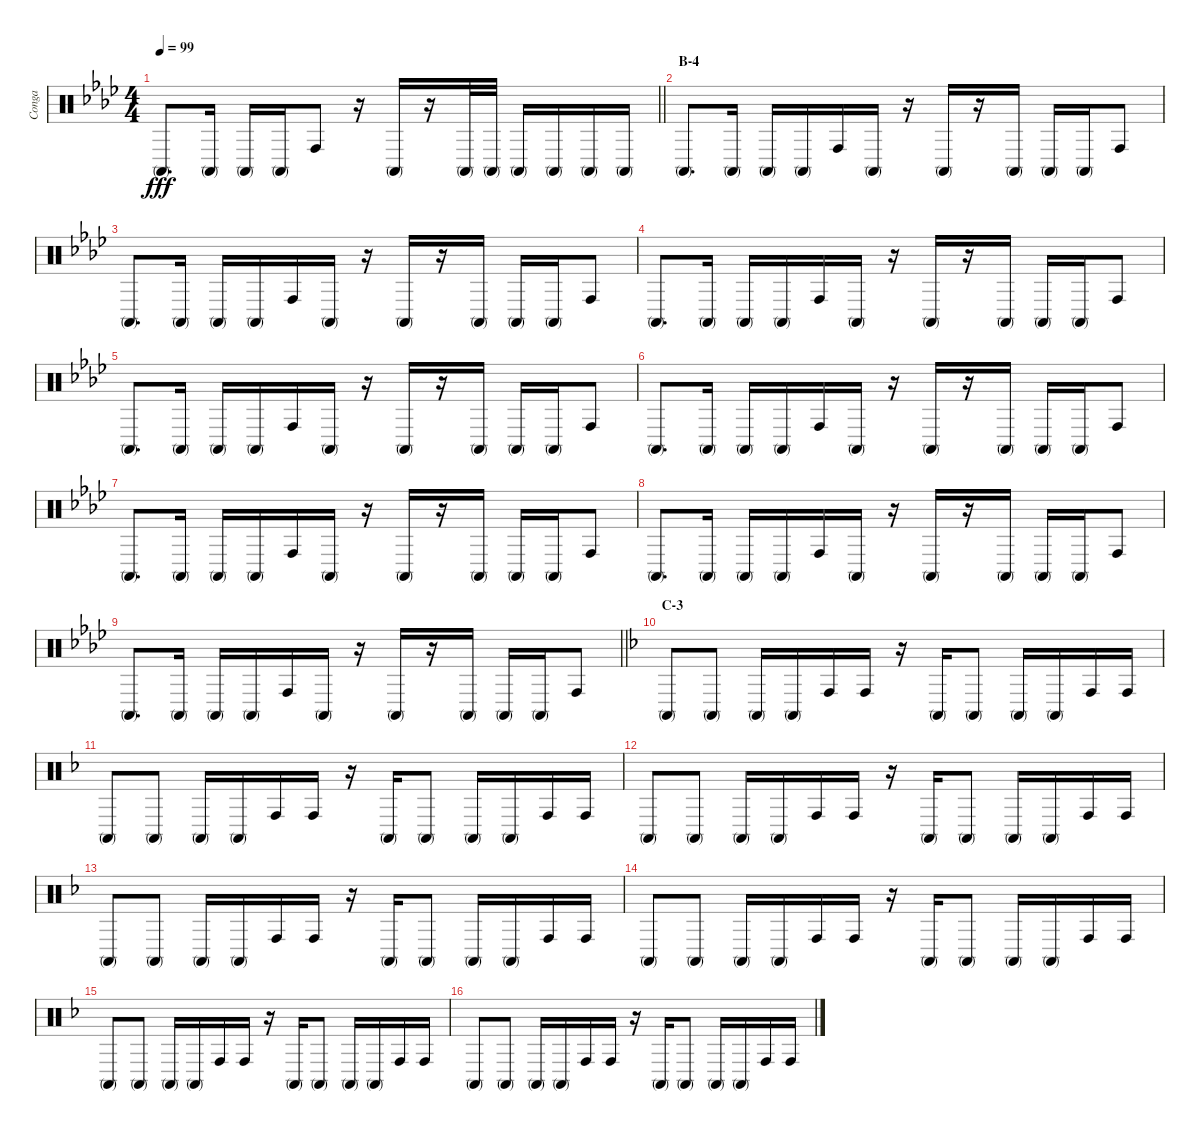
\track ("Conga" "Conga") {instrument percussion}
\staff {score}
\articulation defaults
\ts (4 4)
\tempo 99
\clef neutral
\barLineRight lightlight
\ks ab "Conga high (mute)".8{d dy fff} "Conga high (mute)".16 "Conga high (mute)".16 "Conga high (mute)".16 "Conga high (hit)".8
r.16 "Conga high (mute)".16 r.16 "Conga high (mute)".32 "Conga high (mute)".32 "Conga high (mute)".16 "Conga high (mute)".16 "Conga high (mute)".16 "Conga high (mute)".16 |
\section ("" "B-4")
"Conga high (mute)".8{d} "Conga high (mute)".16 "Conga high (mute)".16 "Conga high (mute)".16 "Conga high (hit)".16 "Conga high (mute)".16 r.16 "Conga high (mute)".16 r.16 "Conga high (mute)".16 "Conga high (mute)".16 "Conga high (mute)".16 "Conga high (hit)".8 |
"Conga high (mute)".8{d} "Conga high (mute)".16 "Conga high (mute)".16 "Conga high (mute)".16 "Conga high (hit)".16 "Conga high (mute)".16 r.16 "Conga high (mute)".16 r.16 "Conga high (mute)".16 "Conga high (mute)".16 "Conga high (mute)".16 "Conga high (hit)".8 |
"Conga high (mute)".8{d} "Conga high (mute)".16 "Conga high (mute)".16 "Conga high (mute)".16 "Conga high (hit)".16 "Conga high (mute)".16 r.16 "Conga high (mute)".16 r.16 "Conga high (mute)".16 "Conga high (mute)".16 "Conga high (mute)".16 "Conga high (hit)".8 |
"Conga high (mute)".8{d} "Conga high (mute)".16 "Conga high (mute)".16 "Conga high (mute)".16 "Conga high (hit)".16 "Conga high (mute)".16 r.16 "Conga high (mute)".16 r.16 "Conga high (mute)".16 "Conga high (mute)".16 "Conga high (mute)".16 "Conga high (hit)".8 |
"Conga high (mute)".8{d} "Conga high (mute)".16 "Conga high (mute)".16 "Conga high (mute)".16 "Conga high (hit)".16 "Conga high (mute)".16 r.16 "Conga high (mute)".16 r.16 "Conga high (mute)".16 "Conga high (mute)".16 "Conga high (mute)".16 "Conga high (hit)".8 |
"Conga high (mute)".8{d} "Conga high (mute)".16 "Conga high (mute)".16 "Conga high (mute)".16 "Conga high (hit)".16 "Conga high (mute)".16 r.16 "Conga high (mute)".16 r.16 "Conga high (mute)".16 "Conga high (mute)".16 "Conga high (mute)".16 "Conga high (hit)".8 |
"Conga high (mute)".8{d} "Conga high (mute)".16 "Conga high (mute)".16 "Conga high (mute)".16 "Conga high (hit)".16 "Conga high (mute)".16 r.16 "Conga high (mute)".16 r.16 "Conga high (mute)".16 "Conga high (mute)".16 "Conga high (mute)".16 "Conga high (hit)".8 |
\barLineRight lightlight "Conga high (mute)".8{d} "Conga high (mute)".16 "Conga high (mute)".16 "Conga high (mute)".16 "Conga high (hit)".16 "Conga high (mute)".16
r.16 "Conga high (mute)".16 r.16 "Conga high (mute)".16 "Conga high (mute)".16 "Conga high (mute)".16 "Conga high (hit)".8 |
\section ("" "C-3")
\ks f "Conga high (mute)".8 "Conga high (mute)".8 "Conga high (mute)".16 "Conga high (mute)".16 "Conga high (hit)".16 "Conga high (hit)".16
r.16 "Conga high (mute)".16 "Conga high (mute)".8 "Conga high (mute)".16 "Conga high (mute)".16 "Conga high (hit)".16 "Conga high (hit)".16 |
"Conga high (mute)".8 "Conga high (mute)".8 "Conga high (mute)".16 "Conga high (mute)".16 "Conga high (hit)".16 "Conga high (hit)".16 r.16 "Conga high (mute)".16 "Conga high (mute)".8 "Conga high (mute)".16 "Conga high (mute)".16 "Conga high (hit)".16 "Conga high (hit)".16 |
"Conga high (mute)".8 "Conga high (mute)".8 "Conga high (mute)".16 "Conga high (mute)".16 "Conga high (hit)".16 "Conga high (hit)".16 r.16 "Conga high (mute)".16 "Conga high (mute)".8 "Conga high (mute)".16 "Conga high (mute)".16 "Conga high (hit)".16 "Conga high (hit)".16 |
"Conga high (mute)".8 "Conga high (mute)".8 "Conga high (mute)".16 "Conga high (mute)".16 "Conga high (hit)".16 "Conga high (hit)".16 r.16 "Conga high (mute)".16 "Conga high (mute)".8 "Conga high (mute)".16 "Conga high (mute)".16 "Conga high (hit)".16 "Conga high (hit)".16 |
"Conga high (mute)".8 "Conga high (mute)".8 "Conga high (mute)".16 "Conga high (mute)".16 "Conga high (hit)".16 "Conga high (hit)".16 r.16 "Conga high (mute)".16 "Conga high (mute)".8 "Conga high (mute)".16 "Conga high (mute)".16 "Conga high (hit)".16 "Conga high (hit)".16 |
"Conga high (mute)".8 "Conga high (mute)".8 "Conga high (mute)".16 "Conga high (mute)".16 "Conga high (hit)".16 "Conga high (hit)".16 r.16 "Conga high (mute)".16 "Conga high (mute)".8 "Conga high (mute)".16 "Conga high (mute)".16 "Conga high (hit)".16 "Conga high (hit)".16 |
"Conga high (mute)".8 "Conga high (mute)".8 "Conga high (mute)".16 "Conga high (mute)".16 "Conga high (hit)".16 "Conga high (hit)".16 r.16 "Conga high (mute)".16 "Conga high (mute)".8 "Conga high (mute)".16 "Conga high (mute)".16 "Conga high (hit)".16 "Conga high (hit)".16
